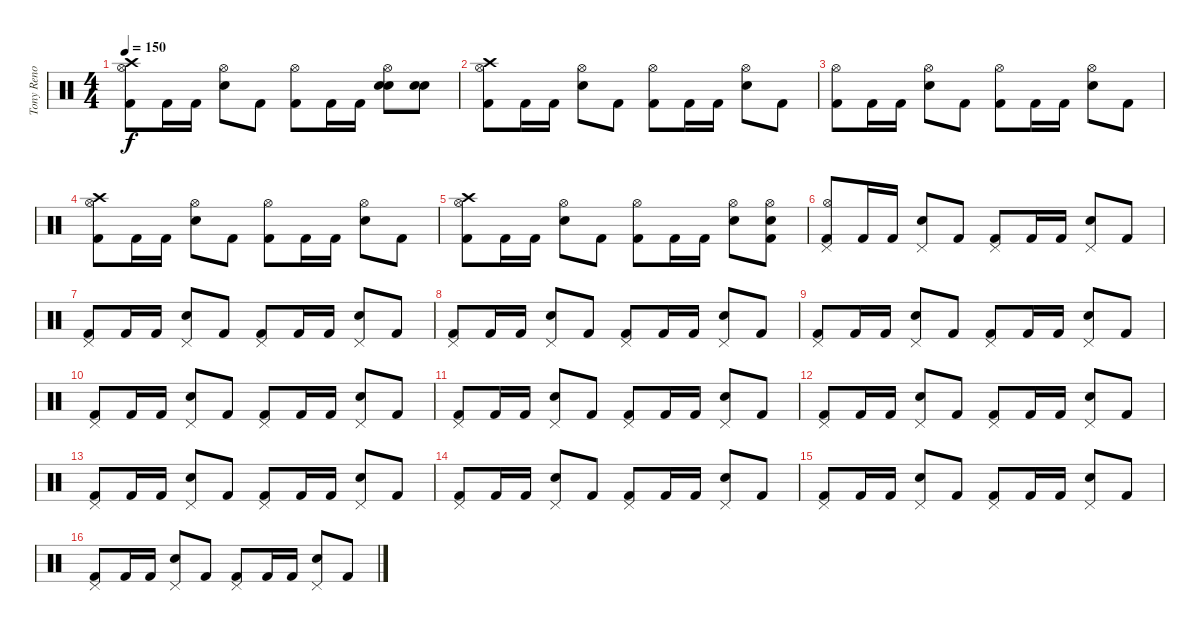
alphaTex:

\track ("Tony Reno" "Tony Reno") {instrument percussion}
\staff {score}
\articulation defaults
\ts (4 4)
\tempo 150
\clef neutral
\ks c
("Kick (hit) 2" "Hi-Hat (open)" "Crash high (hit)").8{dy f} "Kick (hit) 2".16 "Kick (hit) 2".16 ("Snare (hit) 2" "Hi-Hat (open)").8 "Kick (hit) 2".8 ("Kick (hit) 2" "Hi-Hat (open)").8 "Kick (hit) 2".16 "Kick (hit) 2".16 ("Snare (hit) 2" "Electric Snare (hit)" "Hi-Hat (open)").8 ("Snare (hit) 2" "Electric Snare (hit)").8 |
("Kick (hit) 2" "Hi-Hat (open)" "Crash high (hit)").8 "Kick (hit) 2".16 "Kick (hit) 2".16 ("Snare (hit) 2" "Hi-Hat (open)").8 "Kick (hit) 2".8 ("Kick (hit) 2" "Hi-Hat (open)").8 "Kick (hit) 2".16 "Kick (hit) 2".16 ("Snare (hit) 2" "Hi-Hat (open)").8 "Kick (hit) 2".8 |
("Kick (hit) 2" "Hi-Hat (open)").8 "Kick (hit) 2".16 "Kick (hit) 2".16 ("Snare (hit) 2" "Hi-Hat (open)").8 "Kick (hit) 2".8 ("Kick (hit) 2" "Hi-Hat (open)").8 "Kick (hit) 2".16 "Kick (hit) 2".16 ("Snare (hit) 2" "Hi-Hat (open)").8 "Kick (hit) 2".8 |
("Kick (hit) 2" "Hi-Hat (open)" "Crash high (hit)").8 "Kick (hit) 2".16 "Kick (hit) 2".16 ("Snare (hit) 2" "Hi-Hat (open)").8 "Kick (hit) 2".8 ("Kick (hit) 2" "Hi-Hat (open)").8 "Kick (hit) 2".16 "Kick (hit) 2".16 ("Snare (hit) 2" "Hi-Hat (open)").8 "Kick (hit) 2".8 |
("Kick (hit) 2" "Hi-Hat (open)" "Crash high (hit)").8 "Kick (hit) 2".16 "Kick (hit) 2".16 ("Snare (hit) 2" "Hi-Hat (open)").8 "Kick (hit) 2".8 ("Kick (hit) 2" "Hi-Hat (open)").8 "Kick (hit) 2".16 "Kick (hit) 2".16 ("Snare (hit) 2" "Hi-Hat (open)").8 ("Kick (hit) 2" "Snare (hit) 2" "Hi-Hat (open)").8 |
("Kick (hit) 2" "Pedal Hi-Hat (hit)" "Hi-Hat (open)").8 "Kick (hit) 2".16 "Kick (hit) 2".16 ("Snare (hit) 2" "Pedal Hi-Hat (hit)").8 "Kick (hit) 2".8 ("Kick (hit) 2" "Pedal Hi-Hat (hit)").8 "Kick (hit) 2".16 "Kick (hit) 2".16 ("Snare (hit) 2" "Pedal Hi-Hat (hit)").8 "Kick (hit) 2".8 |
("Kick (hit) 2" "Pedal Hi-Hat (hit)").8 "Kick (hit) 2".16 "Kick (hit) 2".16 ("Snare (hit) 2" "Pedal Hi-Hat (hit)").8 "Kick (hit) 2".8 ("Kick (hit) 2" "Pedal Hi-Hat (hit)").8 "Kick (hit) 2".16 "Kick (hit) 2".16 ("Snare (hit) 2" "Pedal Hi-Hat (hit)").8 "Kick (hit) 2".8 |
("Kick (hit) 2" "Pedal Hi-Hat (hit)").8 "Kick (hit) 2".16 "Kick (hit) 2".16 ("Snare (hit) 2" "Pedal Hi-Hat (hit)").8 "Kick (hit) 2".8 ("Kick (hit) 2" "Pedal Hi-Hat (hit)").8 "Kick (hit) 2".16 "Kick (hit) 2".16 ("Snare (hit) 2" "Pedal Hi-Hat (hit)").8 "Kick (hit) 2".8 |
("Kick (hit) 2" "Pedal Hi-Hat (hit)").8 "Kick (hit) 2".16 "Kick (hit) 2".16 ("Snare (hit) 2" "Pedal Hi-Hat (hit)").8 "Kick (hit) 2".8 ("Kick (hit) 2" "Pedal Hi-Hat (hit)").8 "Kick (hit) 2".16 "Kick (hit) 2".16 ("Snare (hit) 2" "Pedal Hi-Hat (hit)").8 "Kick (hit) 2".8 |
("Kick (hit) 2" "Pedal Hi-Hat (hit)").8 "Kick (hit) 2".16 "Kick (hit) 2".16 ("Snare (hit) 2" "Pedal Hi-Hat (hit)").8 "Kick (hit) 2".8 ("Kick (hit) 2" "Pedal Hi-Hat (hit)").8 "Kick (hit) 2".16 "Kick (hit) 2".16 ("Snare (hit) 2" "Pedal Hi-Hat (hit)").8 "Kick (hit) 2".8 |
("Kick (hit) 2" "Pedal Hi-Hat (hit)").8 "Kick (hit) 2".16 "Kick (hit) 2".16 ("Snare (hit) 2" "Pedal Hi-Hat (hit)").8 "Kick (hit) 2".8 ("Kick (hit) 2" "Pedal Hi-Hat (hit)").8 "Kick (hit) 2".16 "Kick (hit) 2".16 ("Snare (hit) 2" "Pedal Hi-Hat (hit)").8 "Kick (hit) 2".8 |
("Kick (hit) 2" "Pedal Hi-Hat (hit)").8 "Kick (hit) 2".16 "Kick (hit) 2".16 ("Snare (hit) 2" "Pedal Hi-Hat (hit)").8 "Kick (hit) 2".8 ("Kick (hit) 2" "Pedal Hi-Hat (hit)").8 "Kick (hit) 2".16 "Kick (hit) 2".16 ("Snare (hit) 2" "Pedal Hi-Hat (hit)").8 "Kick (hit) 2".8 |
("Kick (hit) 2" "Pedal Hi-Hat (hit)").8 "Kick (hit) 2".16 "Kick (hit) 2".16 ("Snare (hit) 2" "Pedal Hi-Hat (hit)").8 "Kick (hit) 2".8 ("Kick (hit) 2" "Pedal Hi-Hat (hit)").8 "Kick (hit) 2".16 "Kick (hit) 2".16 ("Snare (hit) 2" "Pedal Hi-Hat (hit)").8 "Kick (hit) 2".8 |
("Kick (hit) 2" "Pedal Hi-Hat (hit)").8 "Kick (hit) 2".16 "Kick (hit) 2".16 ("Snare (hit) 2" "Pedal Hi-Hat (hit)").8 "Kick (hit) 2".8 ("Kick (hit) 2" "Pedal Hi-Hat (hit)").8 "Kick (hit) 2".16 "Kick (hit) 2".16 ("Snare (hit) 2" "Pedal Hi-Hat (hit)").8 "Kick (hit) 2".8 |
("Kick (hit) 2" "Pedal Hi-Hat (hit)").8 "Kick (hit) 2".16 "Kick (hit) 2".16 ("Snare (hit) 2" "Pedal Hi-Hat (hit)").8 "Kick (hit) 2".8 ("Kick (hit) 2" "Pedal Hi-Hat (hit)").8 "Kick (hit) 2".16 "Kick (hit) 2".16 ("Snare (hit) 2" "Pedal Hi-Hat (hit)").8 "Kick (hit) 2".8 |
("Kick (hit) 2" "Pedal Hi-Hat (hit)").8 "Kick (hit) 2".16 "Kick (hit) 2".16 ("Snare (hit) 2" "Pedal Hi-Hat (hit)").8 "Kick (hit) 2".8 ("Kick (hit) 2" "Pedal Hi-Hat (hit)").8 "Kick (hit) 2".16 "Kick (hit) 2".16 ("Snare (hit) 2" "Pedal Hi-Hat (hit)").8 "Kick (hit) 2".8
